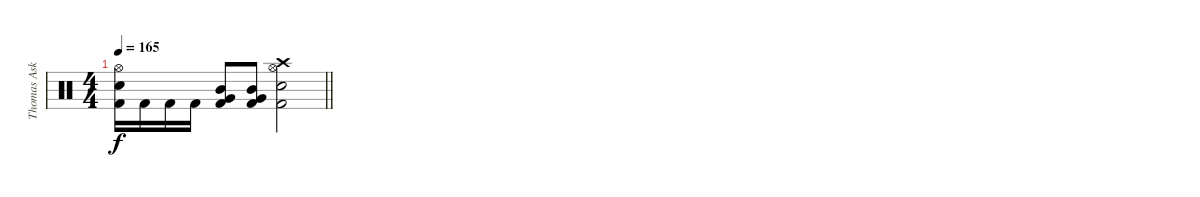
\track ("Thomas Asklund" "Thomas Ask") {instrument percussion}
\staff {score}
\articulation defaults
\ts (4 4)
\tempo 165
\clef neutral
\barLineRight lightlight
\ks c
("Hi-Hat (open)" "Electric Snare (hit)" "Kick (hit) 2").16{dy f} "Kick (hit) 2".16 "Kick (hit) 2".16 "Kick (hit) 2".16 ("Mid Tom (hit)" "Very Low Tom (hit)" "Kick (hit) 2").8 ("Mid Tom (hit)" "Very Low Tom (hit)" "Kick (hit) 2").8 ("Crash high (hit)" "Hi-Hat (open)" "Electric Snare (hit)" "Kick (hit) 2").2
